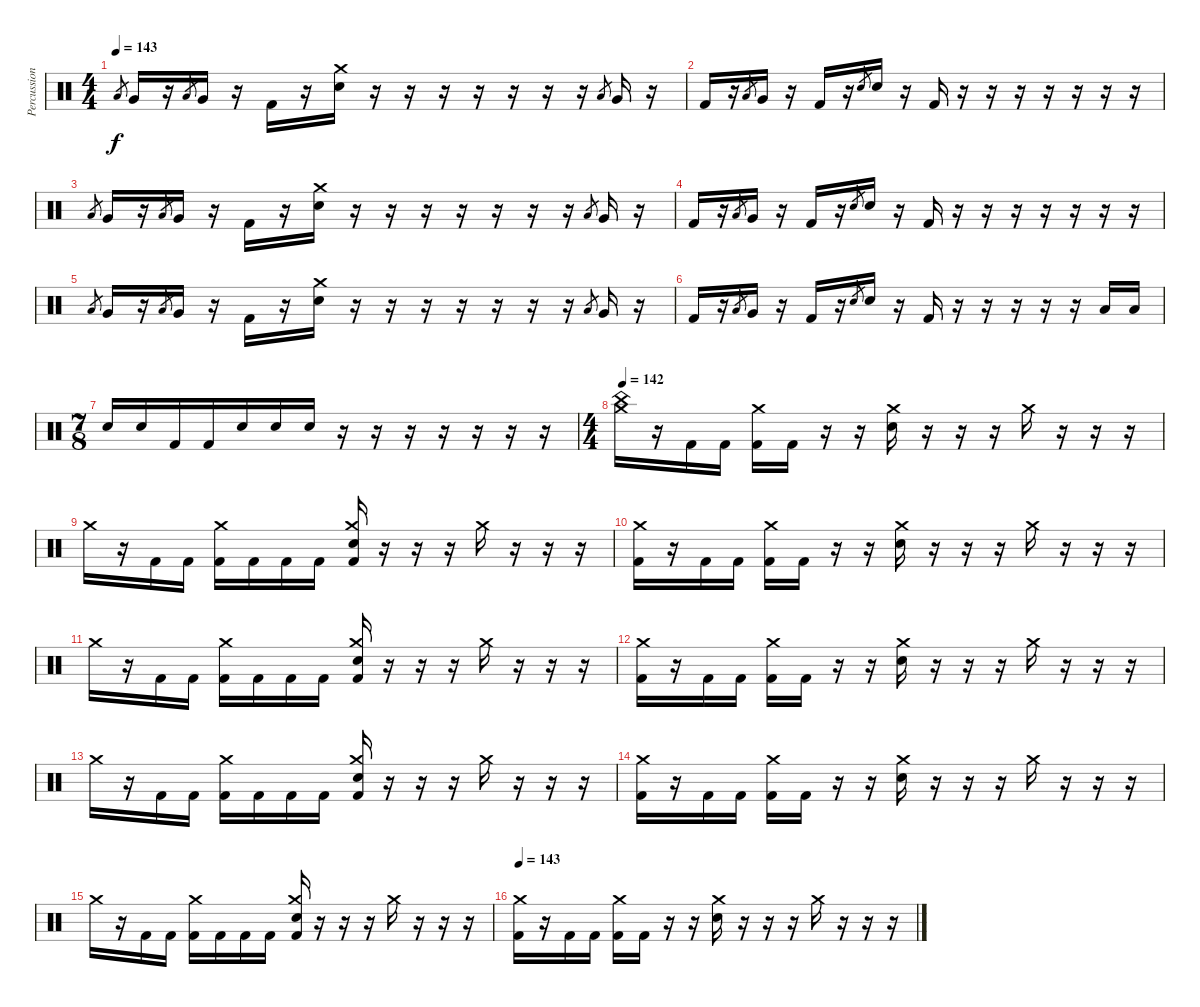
\track ("Percussion" "Percussion") {instrument percussion}
\staff {score}
\articulation defaults
\ts (4 4)
\tempo 143
\clef neutral
\ks c "Low Tom (hit)".8{gr dy f} "Very Low Tom (hit)".16
r.16 "Low Tom (hit)".8{gr} "Very Low Tom (hit)".16 r.16 "Kick (hit) 2".16 r.16 ("Crash medium (hit)" "Electric Snare (hit)").16 r.16 r.16 r.16 r.16 r.16 r.16 r.16 "Low Tom (hit)".8{gr} "Very Low Tom (hit)".16 r.16 |
"Kick (hit) 2".16 r.16 "Low Tom (hit)".8{gr} "Very Low Tom (hit)".16 r.16 "Kick (hit) 2".16 r.16 "Electric Snare (hit)".8{gr} "Electric Snare (hit)".16 r.16 "Kick (hit) 2".16 r.16 r.16 r.16 r.16 r.16 r.16 r.16 |
"Low Tom (hit)".8{gr} "Very Low Tom (hit)".16 r.16 "Low Tom (hit)".8{gr} "Very Low Tom (hit)".16 r.16 "Kick (hit) 2".16 r.16 ("Crash medium (hit)" "Electric Snare (hit)").16 r.16 r.16 r.16 r.16 r.16 r.16 r.16 "Low Tom (hit)".8{gr} "Very Low Tom (hit)".16 r.16 |
"Kick (hit) 2".16 r.16 "Low Tom (hit)".8{gr} "Very Low Tom (hit)".16 r.16 "Kick (hit) 2".16 r.16 "Electric Snare (hit)".8{gr} "Electric Snare (hit)".16 r.16 "Kick (hit) 2".16 r.16 r.16 r.16 r.16 r.16 r.16 r.16 |
"Low Tom (hit)".8{gr} "Very Low Tom (hit)".16 r.16 "Low Tom (hit)".8{gr} "Very Low Tom (hit)".16 r.16 "Kick (hit) 2".16 r.16 ("Crash medium (hit)" "Electric Snare (hit)").16 r.16 r.16 r.16 r.16 r.16 r.16 r.16 "Low Tom (hit)".8{gr} "Very Low Tom (hit)".16 r.16 |
"Kick (hit) 2".16 r.16 "Low Tom (hit)".8{gr} "Very Low Tom (hit)".16 r.16 "Kick (hit) 2".16 r.16 "Electric Snare (hit)".8{gr} "Electric Snare (hit)".16 r.16 "Kick (hit) 2".16 r.16 r.16 r.16 r.16 r.16 "Low Tom (hit)".16 "Low Tom (hit)".16 |
\ts (7 8)
"Electric Snare (hit)".16 "Electric Snare (hit)".16 "Kick (hit) 2".16 "Kick (hit) 2".16 "Electric Snare (hit)".16 "Electric Snare (hit)".16 "Electric Snare (hit)".16 r.16 r.16 r.16 r.16 r.16 r.16 r.16 |
\ts (4 4)
\tempo 142
("Crash medium (hit)" "China (hit)").16 r.16 "Kick (hit) 2".16 "Kick (hit) 2".16 ("Crash medium (hit)" "Kick (hit) 2").16 "Kick (hit) 2".16 r.16 r.16 ("Crash medium (hit)" "Electric Snare (hit)").16 r.16 r.16 r.16 "Crash medium (hit)".16 r.16 r.16 r.16 |
"Crash medium (hit)".16 r.16 "Kick (hit) 2".16 "Kick (hit) 2".16 ("Crash medium (hit)" "Kick (hit) 2").16 "Kick (hit) 2".16 "Kick (hit) 2".16 "Kick (hit) 2".16 ("Crash medium (hit)" "Electric Snare (hit)" "Kick (hit) 2").16 r.16 r.16 r.16 "Crash medium (hit)".16 r.16 r.16 r.16 |
("Crash medium (hit)" "Kick (hit) 2").16 r.16 "Kick (hit) 2".16 "Kick (hit) 2".16 ("Crash medium (hit)" "Kick (hit) 2").16 "Kick (hit) 2".16 r.16 r.16 ("Crash medium (hit)" "Electric Snare (hit)").16 r.16 r.16 r.16 "Crash medium (hit)".16 r.16 r.16 r.16 |
"Crash medium (hit)".16 r.16 "Kick (hit) 2".16 "Kick (hit) 2".16 ("Crash medium (hit)" "Kick (hit) 2").16 "Kick (hit) 2".16 "Kick (hit) 2".16 "Kick (hit) 2".16 ("Crash medium (hit)" "Electric Snare (hit)" "Kick (hit) 2").16 r.16 r.16 r.16 "Crash medium (hit)".16 r.16 r.16 r.16 |
("Crash medium (hit)" "Kick (hit) 2").16 r.16 "Kick (hit) 2".16 "Kick (hit) 2".16 ("Crash medium (hit)" "Kick (hit) 2").16 "Kick (hit) 2".16 r.16 r.16 ("Crash medium (hit)" "Electric Snare (hit)").16 r.16 r.16 r.16 "Crash medium (hit)".16 r.16 r.16 r.16 |
"Crash medium (hit)".16 r.16 "Kick (hit) 2".16 "Kick (hit) 2".16 ("Crash medium (hit)" "Kick (hit) 2").16 "Kick (hit) 2".16 "Kick (hit) 2".16 "Kick (hit) 2".16 ("Crash medium (hit)" "Electric Snare (hit)" "Kick (hit) 2").16 r.16 r.16 r.16 "Crash medium (hit)".16 r.16 r.16 r.16 |
("Crash medium (hit)" "Kick (hit) 2").16 r.16 "Kick (hit) 2".16 "Kick (hit) 2".16 ("Crash medium (hit)" "Kick (hit) 2").16 "Kick (hit) 2".16 r.16 r.16 ("Crash medium (hit)" "Electric Snare (hit)").16 r.16 r.16 r.16 "Crash medium (hit)".16 r.16 r.16 r.16 |
"Crash medium (hit)".16 r.16 "Kick (hit) 2".16 "Kick (hit) 2".16 ("Crash medium (hit)" "Kick (hit) 2").16 "Kick (hit) 2".16 "Kick (hit) 2".16 "Kick (hit) 2".16 ("Crash medium (hit)" "Electric Snare (hit)" "Kick (hit) 2").16 r.16 r.16 r.16 "Crash medium (hit)".16 r.16 r.16 r.16 |
\tempo 142
\tempo 143
("Crash medium (hit)" "Kick (hit) 2").16 r.16 "Kick (hit) 2".16 "Kick (hit) 2".16 ("Crash medium (hit)" "Kick (hit) 2").16 "Kick (hit) 2".16 r.16 r.16 ("Crash medium (hit)" "Electric Snare (hit)").16 r.16 r.16 r.16 "Crash medium (hit)".16 r.16 r.16 r.16
